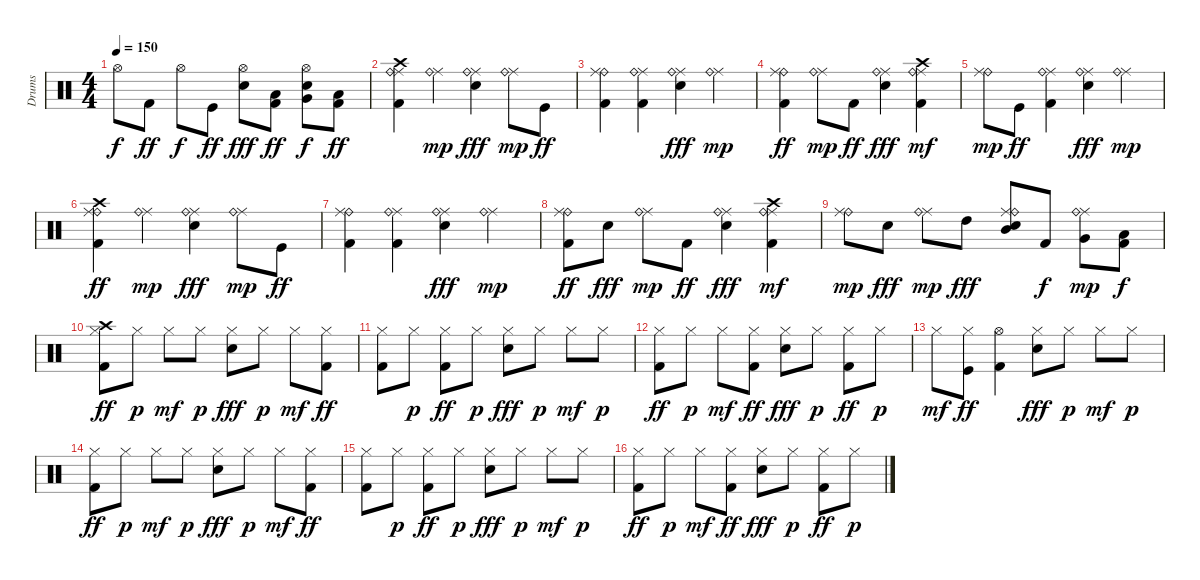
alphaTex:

\track ("Drums" "Drums") {instrument percussion}
\staff {score}
\articulation defaults
\ts (4 4)
\tempo 150
\clef neutral
\ks c "Hi-Hat (open)".8{dy f} "Kick (hit) 2".8{dy ff} "Hi-Hat (open)".8{dy f} "Kick (hit)".8{dy ff}
("Hi-Hat (open)" "Electric Snare (hit)").8{dy fff} ("Low Tom (hit)" "Kick (hit) 2").8{dy ff} ("Very Low Tom (hit)" "Hi-Hat (open)" "Electric Snare (hit)").8{dy f} ("Low Floor Tom (hit)" "Kick (hit) 2").8{dy ff} |
("Ride (middle)" "Ride (bell)" "Crash high (hit)" "Kick (hit) 2").4 ("Ride (middle)" "Ride (bell)").4{dy mp} ("Ride (middle)" "Ride (bell)" "Electric Snare (hit)").4{dy fff} ("Ride (middle)" "Ride (bell)").8{dy mp} "Kick (hit)".8{dy ff} |
("Ride (bell)" "Ride (middle)" "Kick (hit) 2").4 ("Ride (middle)" "Ride (bell)" "Kick (hit) 2").4 ("Ride (middle)" "Ride (bell)" "Electric Snare (hit)").4{dy fff} ("Ride (middle)" "Ride (bell)").4{dy mp} |
("Ride (bell)" "Ride (middle)" "Kick (hit) 2").4{dy ff} ("Ride (middle)" "Ride (bell)").8{dy mp} "Kick (hit) 2".8{dy ff} ("Ride (middle)" "Ride (bell)" "Electric Snare (hit)").4{dy fff} ("Ride (middle)" "Ride (bell)" "Kick (hit) 2" "Crash high (hit)").4{dy mf} |
("Ride (bell)" "Ride (middle)").8{dy mp} "Kick (hit)".8{dy ff} ("Ride (middle)" "Ride (bell)" "Kick (hit) 2").4 ("Ride (middle)" "Ride (bell)" "Electric Snare (hit)").4{dy fff} ("Ride (middle)" "Ride (bell)").4{dy mp} |
("Crash high (hit)" "Ride (bell)" "Ride (middle)" "Kick (hit) 2").4{dy ff} ("Ride (middle)" "Ride (bell)").4{dy mp} ("Ride (middle)" "Ride (bell)" "Electric Snare (hit)").4{dy fff} ("Ride (middle)" "Ride (bell)").8{dy mp} "Kick (hit)".8{dy ff} |
("Ride (bell)" "Ride (middle)" "Kick (hit) 2").4 ("Ride (middle)" "Ride (bell)" "Kick (hit) 2").4 ("Ride (middle)" "Ride (bell)" "Electric Snare (hit)").4{dy fff} ("Ride (middle)" "Ride (bell)").4{dy mp} |
("Ride (bell)" "Ride (middle)" "Kick (hit) 2").8{dy ff} "Electric Snare (hit)".8{dy fff} ("Ride (middle)" "Ride (bell)").8{dy mp} "Kick (hit) 2".8{dy ff} ("Ride (middle)" "Ride (bell)" "Electric Snare (hit)").4{dy fff} ("Ride (middle)" "Ride (bell)" "Kick (hit) 2" "Crash high (hit)").4{dy mf} |
("Ride (bell)" "Ride (middle)").8{dy mp} "Electric Snare (hit)".8{dy fff} ("Ride (middle)" "Ride (bell)").8{dy mp} "High Tom (hit)".8{dy fff} ("Ride (middle)" "Ride (bell)" "Electric Snare (hit)" "Mid Tom (hit)").8 "Kick (hit) 2".8{dy f} ("Ride (middle)" "Ride (bell)" "Very Low Tom (hit)").8{dy mp} ("Low Floor Tom (hit)" "Kick (hit) 2").8{dy f} |
("Crash high (hit)" "Hi-Hat (closed)" "Kick (hit) 2").8{dy ff} "Hi-Hat (closed)".8{dy p} "Hi-Hat (closed)".8{dy mf} "Hi-Hat (closed)".8{dy p} ("Hi-Hat (closed)" "Electric Snare (hit)").8{dy fff} "Hi-Hat (closed)".8{dy p} "Hi-Hat (closed)".8{dy mf} ("Hi-Hat (closed)" "Kick (hit) 2").8{dy ff} |
("Hi-Hat (closed)" "Kick (hit) 2").8 "Hi-Hat (closed)".8{dy p} ("Hi-Hat (closed)" "Kick (hit) 2").8{dy ff} "Hi-Hat (closed)".8{dy p} ("Hi-Hat (closed)" "Electric Snare (hit)").8{dy fff} "Hi-Hat (closed)".8{dy p} "Hi-Hat (closed)".8{dy mf} "Hi-Hat (closed)".8{dy p} |
("Hi-Hat (closed)" "Kick (hit) 2").8{dy ff} "Hi-Hat (closed)".8{dy p} "Hi-Hat (closed)".8{dy mf} ("Hi-Hat (closed)" "Kick (hit) 2").8{dy ff} ("Hi-Hat (closed)" "Electric Snare (hit)").8{dy fff} "Hi-Hat (closed)".8{dy p} ("Hi-Hat (closed)" "Kick (hit) 2").8{dy ff} "Hi-Hat (closed)".8{dy p} |
"Hi-Hat (closed)".8{dy mf} ("Hi-Hat (closed)" "Kick (hit)").8{dy ff} ("Hi-Hat (open)" "Kick (hit) 2").4 ("Hi-Hat (closed)" "Electric Snare (hit)").8{dy fff} "Hi-Hat (closed)".8{dy p} "Hi-Hat (closed)".8{dy mf} "Hi-Hat (closed)".8{dy p} |
("Hi-Hat (closed)" "Kick (hit) 2").8{dy ff} "Hi-Hat (closed)".8{dy p} "Hi-Hat (closed)".8{dy mf} "Hi-Hat (closed)".8{dy p} ("Hi-Hat (closed)" "Electric Snare (hit)").8{dy fff} "Hi-Hat (closed)".8{dy p} "Hi-Hat (closed)".8{dy mf} ("Hi-Hat (closed)" "Kick (hit) 2").8{dy ff} |
("Hi-Hat (closed)" "Kick (hit) 2").8 "Hi-Hat (closed)".8{dy p} ("Hi-Hat (closed)" "Kick (hit) 2").8{dy ff} "Hi-Hat (closed)".8{dy p} ("Hi-Hat (closed)" "Electric Snare (hit)").8{dy fff} "Hi-Hat (closed)".8{dy p} "Hi-Hat (closed)".8{dy mf} "Hi-Hat (closed)".8{dy p} |
("Hi-Hat (closed)" "Kick (hit) 2").8{dy ff} "Hi-Hat (closed)".8{dy p} "Hi-Hat (closed)".8{dy mf} ("Hi-Hat (closed)" "Kick (hit) 2").8{dy ff} ("Hi-Hat (closed)" "Electric Snare (hit)").8{dy fff} "Hi-Hat (closed)".8{dy p} ("Hi-Hat (closed)" "Kick (hit) 2").8{dy ff} "Hi-Hat (closed)".8{dy p}
